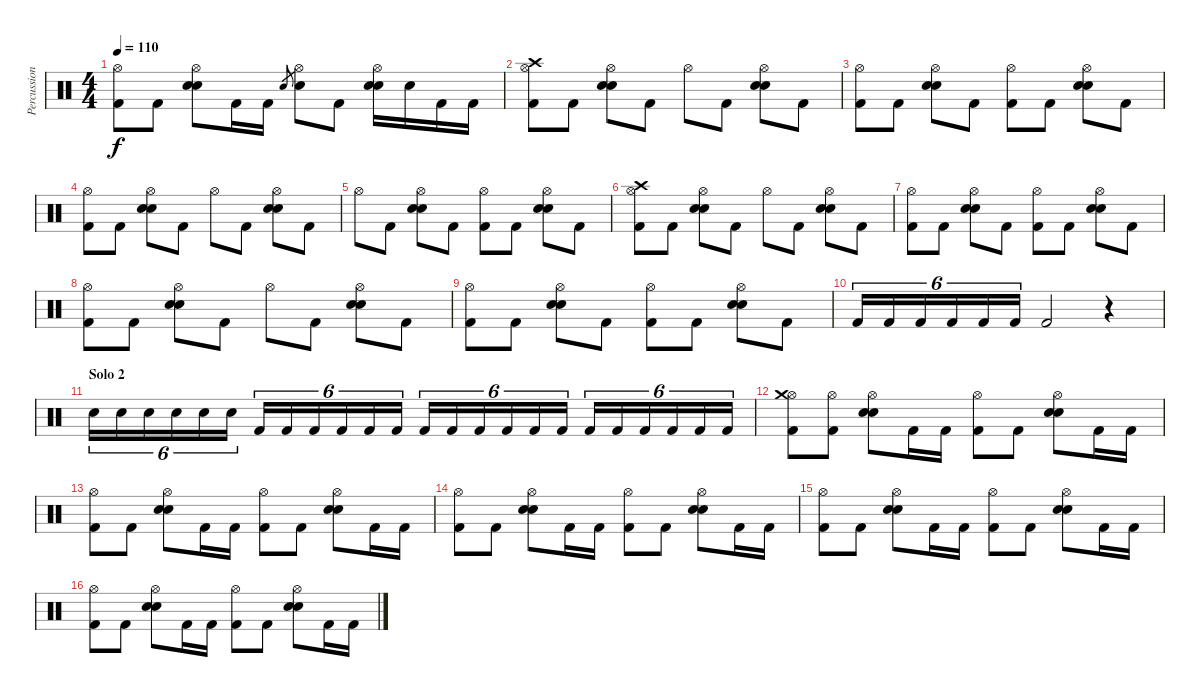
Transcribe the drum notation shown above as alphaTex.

\track ("Percussion" "Percussion") {instrument percussion}
\staff {score}
\articulation defaults
\ts (4 4)
\tempo 110
\clef neutral
\ks c
("Hi-Hat (open)" "Kick (hit) 2").8{dy f} "Kick (hit) 2".8 ("Hi-Hat (open)" "Electric Snare (hit)" "Electric Snare (hit)").8 "Kick (hit) 2".16 "Kick (hit) 2".16 "Electric Snare (hit)".8{gr} ("Hi-Hat (open)" "Electric Snare (hit)").8 "Kick (hit) 2".8 ("Hi-Hat (open)" "Electric Snare (hit)" "Electric Snare (hit)").16 "Electric Snare (hit)".16 "Kick (hit) 2".16 "Kick (hit) 2".16 |
("Hi-Hat (open)" "Crash high (hit)" "Kick (hit) 2").8 "Kick (hit) 2".8 ("Hi-Hat (open)" "Electric Snare (hit)" "Electric Snare (hit)").8 "Kick (hit) 2".8 "Hi-Hat (open)".8 "Kick (hit) 2".8 ("Hi-Hat (open)" "Electric Snare (hit)" "Electric Snare (hit)").8 "Kick (hit) 2".8 |
("Hi-Hat (open)" "Kick (hit) 2").8 "Kick (hit) 2".8 ("Hi-Hat (open)" "Electric Snare (hit)" "Electric Snare (hit)").8 "Kick (hit) 2".8 ("Hi-Hat (open)" "Kick (hit) 2").8 "Kick (hit) 2".8 ("Hi-Hat (open)" "Electric Snare (hit)" "Electric Snare (hit)").8 "Kick (hit) 2".8 |
("Hi-Hat (open)" "Kick (hit) 2").8 "Kick (hit) 2".8 ("Hi-Hat (open)" "Electric Snare (hit)" "Electric Snare (hit)").8 "Kick (hit) 2".8 "Hi-Hat (open)".8 "Kick (hit) 2".8 ("Hi-Hat (open)" "Electric Snare (hit)" "Electric Snare (hit)").8 "Kick (hit) 2".8 |
"Hi-Hat (open)".8 "Kick (hit) 2".8 ("Hi-Hat (open)" "Electric Snare (hit)" "Electric Snare (hit)").8 "Kick (hit) 2".8 ("Hi-Hat (open)" "Kick (hit) 2").8 "Kick (hit) 2".8 ("Hi-Hat (open)" "Electric Snare (hit)" "Electric Snare (hit)").8 "Kick (hit) 2".8 |
("Hi-Hat (open)" "Crash high (hit)" "Kick (hit) 2").8 "Kick (hit) 2".8 ("Hi-Hat (open)" "Electric Snare (hit)" "Electric Snare (hit)").8 "Kick (hit) 2".8 "Hi-Hat (open)".8 "Kick (hit) 2".8 ("Hi-Hat (open)" "Electric Snare (hit)" "Electric Snare (hit)").8 "Kick (hit) 2".8 |
("Hi-Hat (open)" "Kick (hit) 2").8 "Kick (hit) 2".8 ("Hi-Hat (open)" "Electric Snare (hit)" "Electric Snare (hit)").8 "Kick (hit) 2".8 ("Hi-Hat (open)" "Kick (hit) 2").8 "Kick (hit) 2".8 ("Hi-Hat (open)" "Electric Snare (hit)" "Electric Snare (hit)").8 "Kick (hit) 2".8 |
("Hi-Hat (open)" "Kick (hit) 2").8 "Kick (hit) 2".8 ("Hi-Hat (open)" "Electric Snare (hit)" "Electric Snare (hit)").8 "Kick (hit) 2".8 "Hi-Hat (open)".8 "Kick (hit) 2".8 ("Hi-Hat (open)" "Electric Snare (hit)" "Electric Snare (hit)").8 "Kick (hit) 2".8 |
("Hi-Hat (open)" "Kick (hit) 2").8 "Kick (hit) 2".8 ("Hi-Hat (open)" "Electric Snare (hit)" "Electric Snare (hit)").8 "Kick (hit) 2".8 ("Hi-Hat (open)" "Kick (hit) 2").8 "Kick (hit) 2".8 ("Hi-Hat (open)" "Electric Snare (hit)" "Electric Snare (hit)").8 "Kick (hit) 2".8 |
"Kick (hit) 2".16{tu (6 4)} "Kick (hit) 2".16{tu (6 4)} "Kick (hit) 2".16{tu (6 4)} "Kick (hit) 2".16{tu (6 4)} "Kick (hit) 2".16{tu (6 4)} "Kick (hit) 2".16{tu (6 4)} "Kick (hit) 2".2 r.4 |
\section ("" "Solo 2")
"Electric Snare (hit)".16{tu (6 4) balance 8} "Electric Snare (hit)".16{tu (6 4)} "Electric Snare (hit)".16{tu (6 4)} "Electric Snare (hit)".16{tu (6 4)} "Electric Snare (hit)".16{tu (6 4)} "Electric Snare (hit)".16{tu (6 4)} "Kick (hit) 2".16{tu (6 4) balance 1} "Kick (hit) 2".16{tu (6 4)} "Kick (hit) 2".16{tu (6 4)} "Kick (hit) 2".16{tu (6 4)} "Kick (hit) 2".16{tu (6 4)} "Kick (hit) 2".16{tu (6 4)} "Kick (hit) 2".16{tu (6 4) balance 8} "Kick (hit) 2".16{tu (6 4)} "Kick (hit) 2".16{tu (6 4)} "Kick (hit) 2".16{tu (6 4)} "Kick (hit) 2".16{tu (6 4)} "Kick (hit) 2".16{tu (6 4)} "Kick (hit) 2".16{tu (6 4) balance 1} "Kick (hit) 2".16{tu (6 4)} "Kick (hit) 2".16{tu (6 4)} "Kick (hit) 2".16{tu (6 4)} "Kick (hit) 2".16{tu (6 4)} "Kick (hit) 2".16{tu (6 4)} |
("Hi-Hat (open)" "Crash medium (hit)" "Kick (hit) 2").8{balance 8} ("Hi-Hat (open)" "Kick (hit) 2").8 ("Hi-Hat (open)" "Electric Snare (hit)" "Electric Snare (hit)").8 "Kick (hit) 2".16 "Kick (hit) 2".16 ("Hi-Hat (open)" "Kick (hit) 2").8 "Kick (hit) 2".8 ("Hi-Hat (open)" "Electric Snare (hit)" "Electric Snare (hit)").8 "Kick (hit) 2".16 "Kick (hit) 2".16 |
("Hi-Hat (open)" "Kick (hit) 2").8 "Kick (hit) 2".8 ("Hi-Hat (open)" "Electric Snare (hit)" "Electric Snare (hit)").8 "Kick (hit) 2".16 "Kick (hit) 2".16 ("Hi-Hat (open)" "Kick (hit) 2").8 "Kick (hit) 2".8 ("Hi-Hat (open)" "Electric Snare (hit)" "Electric Snare (hit)").8 "Kick (hit) 2".16 "Kick (hit) 2".16 |
("Hi-Hat (open)" "Kick (hit) 2").8 "Kick (hit) 2".8 ("Hi-Hat (open)" "Electric Snare (hit)" "Electric Snare (hit)").8 "Kick (hit) 2".16 "Kick (hit) 2".16 ("Hi-Hat (open)" "Kick (hit) 2").8 "Kick (hit) 2".8 ("Hi-Hat (open)" "Electric Snare (hit)" "Electric Snare (hit)").8 "Kick (hit) 2".16 "Kick (hit) 2".16 |
("Hi-Hat (open)" "Kick (hit) 2").8 "Kick (hit) 2".8 ("Hi-Hat (open)" "Electric Snare (hit)" "Electric Snare (hit)").8 "Kick (hit) 2".16 "Kick (hit) 2".16 ("Hi-Hat (open)" "Kick (hit) 2").8 "Kick (hit) 2".8 ("Hi-Hat (open)" "Electric Snare (hit)" "Electric Snare (hit)").8 "Kick (hit) 2".16 "Kick (hit) 2".16 |
("Hi-Hat (open)" "Kick (hit) 2").8{balance 8} "Kick (hit) 2".8 ("Hi-Hat (open)" "Electric Snare (hit)" "Electric Snare (hit)").8 "Kick (hit) 2".16 "Kick (hit) 2".16 ("Hi-Hat (open)" "Kick (hit) 2").8 "Kick (hit) 2".8 ("Hi-Hat (open)" "Electric Snare (hit)" "Electric Snare (hit)").8 "Kick (hit) 2".16 "Kick (hit) 2".16
